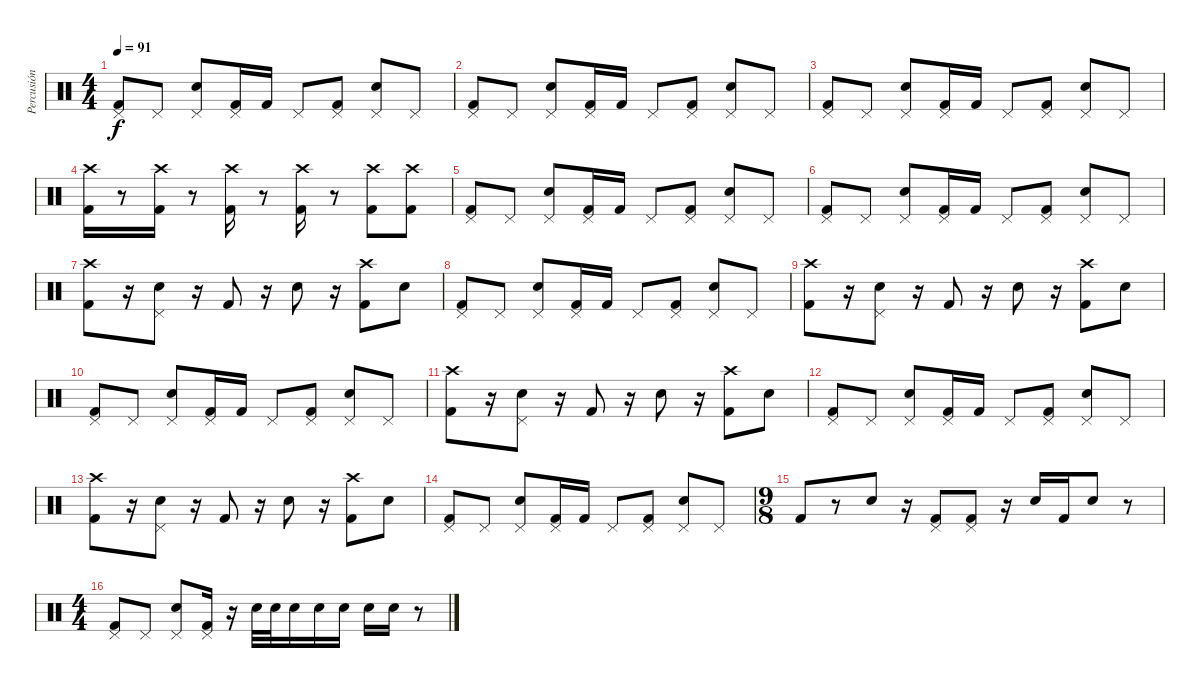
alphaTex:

\track ("Percusión" "Percusión") {instrument percussion}
\staff {score}
\articulation defaults
\ts (4 4)
\tempo 91
\clef neutral
\ks c
("Pedal Hi-Hat (hit)" "Kick (hit) 2").8{dy f} "Pedal Hi-Hat (hit)".8 ("Pedal Hi-Hat (hit)" "Electric Snare (hit)").8 ("Pedal Hi-Hat (hit)" "Kick (hit) 2").16 "Kick (hit) 2".16 "Pedal Hi-Hat (hit)".8 ("Pedal Hi-Hat (hit)" "Kick (hit) 2").8 ("Pedal Hi-Hat (hit)" "Electric Snare (hit)").8 "Pedal Hi-Hat (hit)".8 |
("Pedal Hi-Hat (hit)" "Kick (hit) 2").8 "Pedal Hi-Hat (hit)".8 ("Pedal Hi-Hat (hit)" "Electric Snare (hit)").8 ("Pedal Hi-Hat (hit)" "Kick (hit) 2").16 "Kick (hit) 2".16 "Pedal Hi-Hat (hit)".8 ("Pedal Hi-Hat (hit)" "Kick (hit) 2").8 ("Pedal Hi-Hat (hit)" "Electric Snare (hit)").8 "Pedal Hi-Hat (hit)".8 |
("Pedal Hi-Hat (hit)" "Kick (hit) 2").8 "Pedal Hi-Hat (hit)".8 ("Pedal Hi-Hat (hit)" "Electric Snare (hit)").8 ("Pedal Hi-Hat (hit)" "Kick (hit) 2").16 "Kick (hit) 2".16 "Pedal Hi-Hat (hit)".8 ("Pedal Hi-Hat (hit)" "Kick (hit) 2").8 ("Pedal Hi-Hat (hit)" "Electric Snare (hit)").8 "Pedal Hi-Hat (hit)".8 |
("Crash high (hit)" "Kick (hit) 2").16 r.8 ("Crash high (hit)" "Kick (hit) 2").16 r.8 ("Crash high (hit)" "Kick (hit) 2").16 r.8 ("Crash high (hit)" "Kick (hit) 2").16 r.8 ("Crash high (hit)" "Kick (hit) 2").8 ("Crash high (hit)" "Kick (hit) 2").8 |
("Pedal Hi-Hat (hit)" "Kick (hit) 2").8 "Pedal Hi-Hat (hit)".8 ("Pedal Hi-Hat (hit)" "Electric Snare (hit)").8 ("Pedal Hi-Hat (hit)" "Kick (hit) 2").16 "Kick (hit) 2".16 "Pedal Hi-Hat (hit)".8 ("Pedal Hi-Hat (hit)" "Kick (hit) 2").8 ("Pedal Hi-Hat (hit)" "Electric Snare (hit)").8 "Pedal Hi-Hat (hit)".8 |
("Pedal Hi-Hat (hit)" "Kick (hit) 2").8 "Pedal Hi-Hat (hit)".8 ("Pedal Hi-Hat (hit)" "Electric Snare (hit)").8 ("Pedal Hi-Hat (hit)" "Kick (hit) 2").16 "Kick (hit) 2".16 "Pedal Hi-Hat (hit)".8 ("Pedal Hi-Hat (hit)" "Kick (hit) 2").8 ("Pedal Hi-Hat (hit)" "Electric Snare (hit)").8 "Pedal Hi-Hat (hit)".8 |
("Crash high (hit)" "Kick (hit) 2").8 r.16 ("Pedal Hi-Hat (hit)" "Electric Snare (hit)").8 r.16 "Kick (hit) 2".8 r.16 "Electric Snare (hit)".8 r.16 ("Crash high (hit)" "Kick (hit) 2").8 "Electric Snare (hit)".8 |
("Pedal Hi-Hat (hit)" "Kick (hit) 2").8 "Pedal Hi-Hat (hit)".8 ("Pedal Hi-Hat (hit)" "Electric Snare (hit)").8 ("Pedal Hi-Hat (hit)" "Kick (hit) 2").16 "Kick (hit) 2".16 "Pedal Hi-Hat (hit)".8 ("Pedal Hi-Hat (hit)" "Kick (hit) 2").8 ("Pedal Hi-Hat (hit)" "Electric Snare (hit)").8 "Pedal Hi-Hat (hit)".8 |
("Crash high (hit)" "Kick (hit) 2").8 r.16 ("Pedal Hi-Hat (hit)" "Electric Snare (hit)").8 r.16 "Kick (hit) 2".8 r.16 "Electric Snare (hit)".8 r.16 ("Crash high (hit)" "Kick (hit) 2").8 "Electric Snare (hit)".8 |
("Pedal Hi-Hat (hit)" "Kick (hit) 2").8 "Pedal Hi-Hat (hit)".8 ("Pedal Hi-Hat (hit)" "Electric Snare (hit)").8 ("Pedal Hi-Hat (hit)" "Kick (hit) 2").16 "Kick (hit) 2".16 "Pedal Hi-Hat (hit)".8 ("Pedal Hi-Hat (hit)" "Kick (hit) 2").8 ("Pedal Hi-Hat (hit)" "Electric Snare (hit)").8 "Pedal Hi-Hat (hit)".8 |
("Crash high (hit)" "Kick (hit) 2").8 r.16 ("Pedal Hi-Hat (hit)" "Electric Snare (hit)").8 r.16 "Kick (hit) 2".8 r.16 "Electric Snare (hit)".8 r.16 ("Crash high (hit)" "Kick (hit) 2").8 "Electric Snare (hit)".8 |
("Pedal Hi-Hat (hit)" "Kick (hit) 2").8 "Pedal Hi-Hat (hit)".8 ("Pedal Hi-Hat (hit)" "Electric Snare (hit)").8 ("Pedal Hi-Hat (hit)" "Kick (hit) 2").16 "Kick (hit) 2".16 "Pedal Hi-Hat (hit)".8 ("Pedal Hi-Hat (hit)" "Kick (hit) 2").8 ("Pedal Hi-Hat (hit)" "Electric Snare (hit)").8 "Pedal Hi-Hat (hit)".8 |
("Crash high (hit)" "Kick (hit) 2").8 r.16 ("Pedal Hi-Hat (hit)" "Electric Snare (hit)").8 r.16 "Kick (hit) 2".8 r.16 "Electric Snare (hit)".8 r.16 ("Crash high (hit)" "Kick (hit) 2").8 "Electric Snare (hit)".8 |
("Pedal Hi-Hat (hit)" "Kick (hit) 2").8 "Pedal Hi-Hat (hit)".8 ("Pedal Hi-Hat (hit)" "Electric Snare (hit)").8 ("Pedal Hi-Hat (hit)" "Kick (hit) 2").16 "Kick (hit) 2".16 "Pedal Hi-Hat (hit)".8 ("Pedal Hi-Hat (hit)" "Kick (hit) 2").8 ("Pedal Hi-Hat (hit)" "Electric Snare (hit)").8 "Pedal Hi-Hat (hit)".8 |
\ts (9 8)
"Kick (hit) 2".8 r.8 "Electric Snare (hit)".8 r.16 ("Pedal Hi-Hat (hit)" "Kick (hit) 2").8 ("Pedal Hi-Hat (hit)" "Kick (hit) 2").8 r.16 "Electric Snare (hit)".16 "Kick (hit) 2".16 "Electric Snare (hit)".8 r.8 |
\ts (4 4)
("Pedal Hi-Hat (hit)" "Kick (hit) 2").8 "Pedal Hi-Hat (hit)".8 ("Pedal Hi-Hat (hit)" "Electric Snare (hit)").8 ("Pedal Hi-Hat (hit)" "Kick (hit) 2").16 r.16 "Electric Snare (hit)".32 "Electric Snare (hit)".32 "Electric Snare (hit)".16 "Electric Snare (hit)".16 "Electric Snare (hit)".16 "Electric Snare (hit)".16 "Electric Snare (hit)".16 r.8
